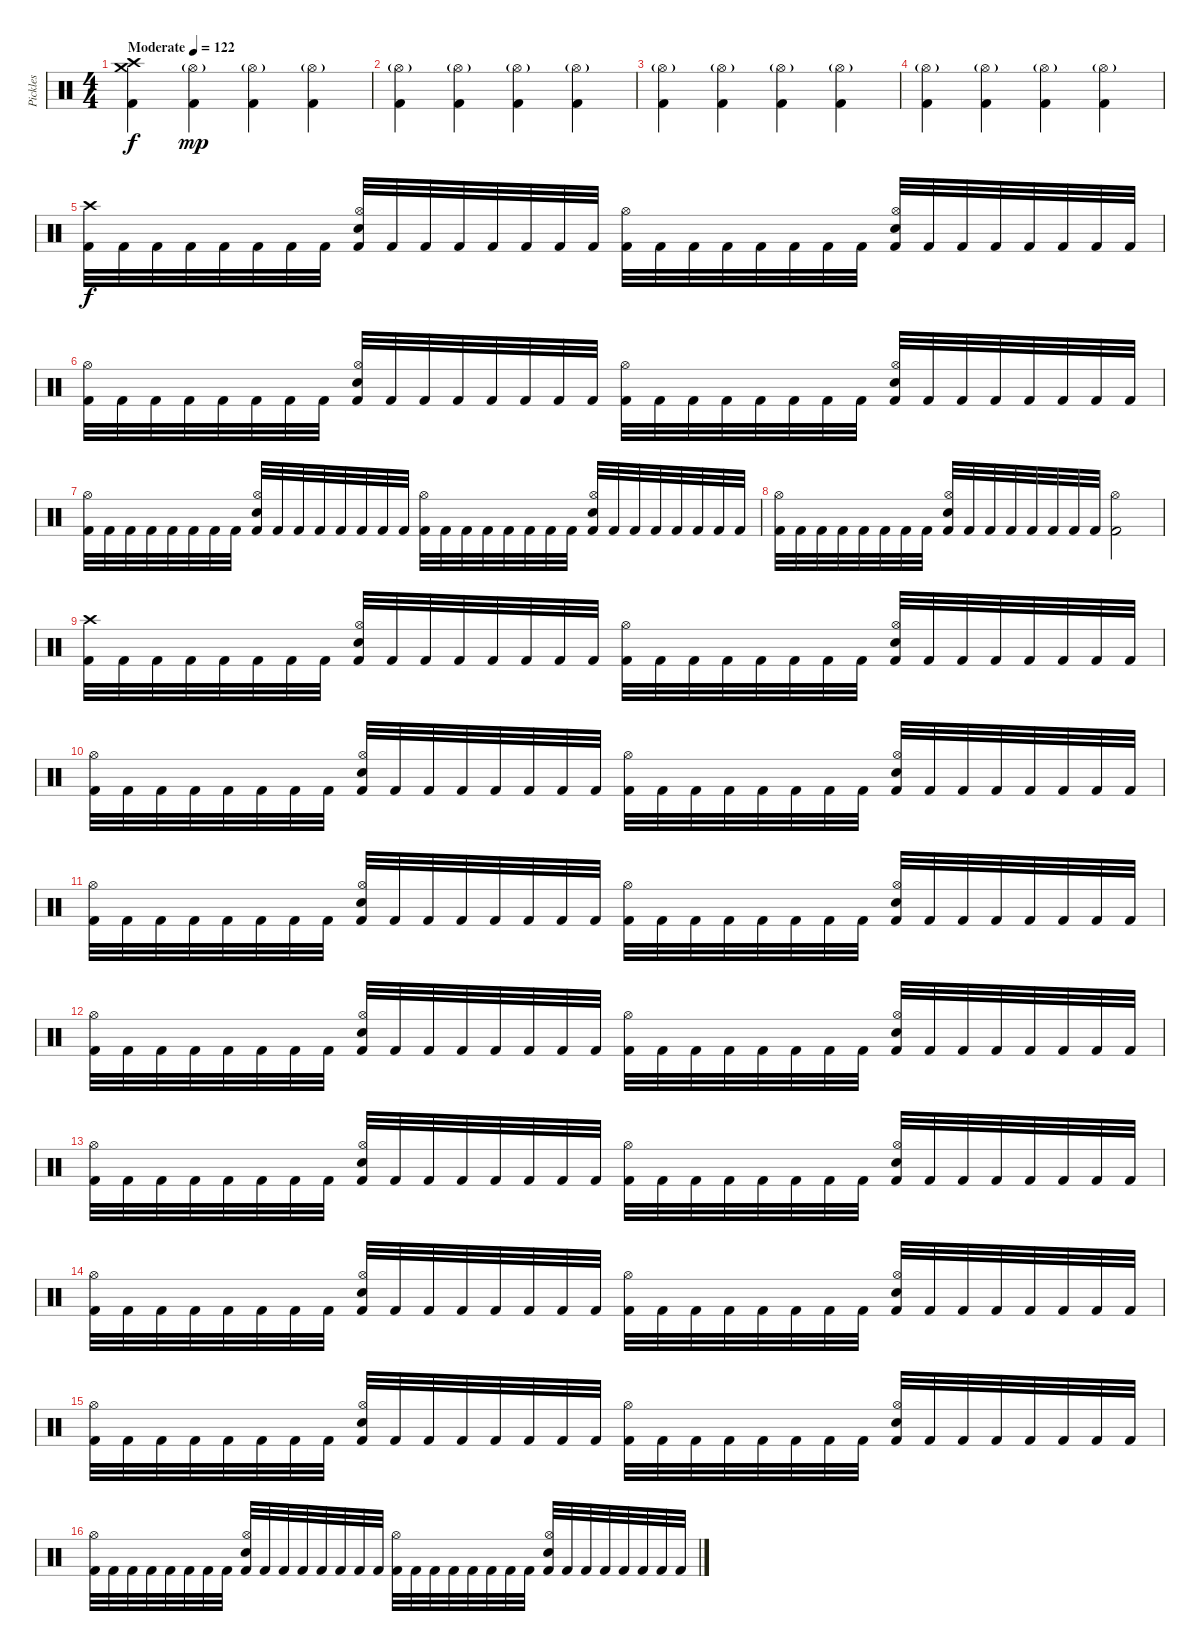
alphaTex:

\track ("Pickles" "Pickles") {instrument percussion}
\staff {score}
\articulation defaults
\ts (4 4)
\tempo (122 "Moderate")
\clef neutral
\ks c
("Crash medium (hit)" "Crash high (hit)" "Kick (hit) 2").4{dy f} ("Hi-Hat (open)"{g} "Kick (hit) 2").4{dy mp} ("Hi-Hat (open)"{g} "Kick (hit) 2").4 ("Hi-Hat (open)"{g} "Kick (hit) 2").4 |
("Hi-Hat (open)"{g} "Kick (hit) 2").4 ("Hi-Hat (open)"{g} "Kick (hit) 2").4 ("Hi-Hat (open)"{g} "Kick (hit) 2").4 ("Hi-Hat (open)"{g} "Kick (hit) 2").4 |
("Hi-Hat (open)"{g} "Kick (hit) 2").4 ("Hi-Hat (open)"{g} "Kick (hit) 2").4 ("Hi-Hat (open)"{g} "Kick (hit) 2").4 ("Hi-Hat (open)"{g} "Kick (hit) 2").4 |
("Hi-Hat (open)"{g} "Kick (hit) 2").4 ("Hi-Hat (open)"{g} "Kick (hit) 2").4 ("Hi-Hat (open)"{g} "Kick (hit) 2").4 ("Hi-Hat (open)"{g} "Kick (hit) 2").4 |
("Crash high (hit)" "Kick (hit) 2").32{dy f} "Kick (hit) 2".32 "Kick (hit) 2".32 "Kick (hit) 2".32 "Kick (hit) 2".32 "Kick (hit) 2".32 "Kick (hit) 2".32 "Kick (hit) 2".32 ("Hi-Hat (open)" "Electric Snare (hit)" "Kick (hit) 2").32 "Kick (hit) 2".32 "Kick (hit) 2".32 "Kick (hit) 2".32 "Kick (hit) 2".32 "Kick (hit) 2".32 "Kick (hit) 2".32 "Kick (hit) 2".32 ("Hi-Hat (open)" "Kick (hit) 2").32 "Kick (hit) 2".32 "Kick (hit) 2".32 "Kick (hit) 2".32 "Kick (hit) 2".32 "Kick (hit) 2".32 "Kick (hit) 2".32 "Kick (hit) 2".32 ("Hi-Hat (open)" "Electric Snare (hit)" "Kick (hit) 2").32 "Kick (hit) 2".32 "Kick (hit) 2".32 "Kick (hit) 2".32 "Kick (hit) 2".32 "Kick (hit) 2".32 "Kick (hit) 2".32 "Kick (hit) 2".32 |
("Hi-Hat (open)" "Kick (hit) 2").32 "Kick (hit) 2".32 "Kick (hit) 2".32 "Kick (hit) 2".32 "Kick (hit) 2".32 "Kick (hit) 2".32 "Kick (hit) 2".32 "Kick (hit) 2".32 ("Hi-Hat (open)" "Electric Snare (hit)" "Kick (hit) 2").32 "Kick (hit) 2".32 "Kick (hit) 2".32 "Kick (hit) 2".32 "Kick (hit) 2".32 "Kick (hit) 2".32 "Kick (hit) 2".32 "Kick (hit) 2".32 ("Hi-Hat (open)" "Kick (hit) 2").32 "Kick (hit) 2".32 "Kick (hit) 2".32 "Kick (hit) 2".32 "Kick (hit) 2".32 "Kick (hit) 2".32 "Kick (hit) 2".32 "Kick (hit) 2".32 ("Hi-Hat (open)" "Electric Snare (hit)" "Kick (hit) 2").32 "Kick (hit) 2".32 "Kick (hit) 2".32 "Kick (hit) 2".32 "Kick (hit) 2".32 "Kick (hit) 2".32 "Kick (hit) 2".32 "Kick (hit) 2".32 |
("Hi-Hat (open)" "Kick (hit) 2").32 "Kick (hit) 2".32 "Kick (hit) 2".32 "Kick (hit) 2".32 "Kick (hit) 2".32 "Kick (hit) 2".32 "Kick (hit) 2".32 "Kick (hit) 2".32 ("Hi-Hat (open)" "Electric Snare (hit)" "Kick (hit) 2").32 "Kick (hit) 2".32 "Kick (hit) 2".32 "Kick (hit) 2".32 "Kick (hit) 2".32 "Kick (hit) 2".32 "Kick (hit) 2".32 "Kick (hit) 2".32 ("Hi-Hat (open)" "Kick (hit) 2").32 "Kick (hit) 2".32 "Kick (hit) 2".32 "Kick (hit) 2".32 "Kick (hit) 2".32 "Kick (hit) 2".32 "Kick (hit) 2".32 "Kick (hit) 2".32 ("Hi-Hat (open)" "Electric Snare (hit)" "Kick (hit) 2").32 "Kick (hit) 2".32 "Kick (hit) 2".32 "Kick (hit) 2".32 "Kick (hit) 2".32 "Kick (hit) 2".32 "Kick (hit) 2".32 "Kick (hit) 2".32 |
("Hi-Hat (open)" "Kick (hit) 2").32 "Kick (hit) 2".32 "Kick (hit) 2".32 "Kick (hit) 2".32 "Kick (hit) 2".32 "Kick (hit) 2".32 "Kick (hit) 2".32 "Kick (hit) 2".32 ("Hi-Hat (open)" "Electric Snare (hit)" "Kick (hit) 2").32 "Kick (hit) 2".32 "Kick (hit) 2".32 "Kick (hit) 2".32 "Kick (hit) 2".32 "Kick (hit) 2".32 "Kick (hit) 2".32 "Kick (hit) 2".32 ("Hi-Hat (open)" "Kick (hit) 2").2 |
("Crash high (hit)" "Kick (hit) 2").32 "Kick (hit) 2".32 "Kick (hit) 2".32 "Kick (hit) 2".32 "Kick (hit) 2".32 "Kick (hit) 2".32 "Kick (hit) 2".32 "Kick (hit) 2".32 ("Hi-Hat (open)" "Electric Snare (hit)" "Kick (hit) 2").32 "Kick (hit) 2".32 "Kick (hit) 2".32 "Kick (hit) 2".32 "Kick (hit) 2".32 "Kick (hit) 2".32 "Kick (hit) 2".32 "Kick (hit) 2".32 ("Hi-Hat (open)" "Kick (hit) 2").32 "Kick (hit) 2".32 "Kick (hit) 2".32 "Kick (hit) 2".32 "Kick (hit) 2".32 "Kick (hit) 2".32 "Kick (hit) 2".32 "Kick (hit) 2".32 ("Hi-Hat (open)" "Electric Snare (hit)" "Kick (hit) 2").32 "Kick (hit) 2".32 "Kick (hit) 2".32 "Kick (hit) 2".32 "Kick (hit) 2".32 "Kick (hit) 2".32 "Kick (hit) 2".32 "Kick (hit) 2".32 |
("Hi-Hat (open)" "Kick (hit) 2").32 "Kick (hit) 2".32 "Kick (hit) 2".32 "Kick (hit) 2".32 "Kick (hit) 2".32 "Kick (hit) 2".32 "Kick (hit) 2".32 "Kick (hit) 2".32 ("Hi-Hat (open)" "Electric Snare (hit)" "Kick (hit) 2").32 "Kick (hit) 2".32 "Kick (hit) 2".32 "Kick (hit) 2".32 "Kick (hit) 2".32 "Kick (hit) 2".32 "Kick (hit) 2".32 "Kick (hit) 2".32 ("Hi-Hat (open)" "Kick (hit) 2").32 "Kick (hit) 2".32 "Kick (hit) 2".32 "Kick (hit) 2".32 "Kick (hit) 2".32 "Kick (hit) 2".32 "Kick (hit) 2".32 "Kick (hit) 2".32 ("Hi-Hat (open)" "Electric Snare (hit)" "Kick (hit) 2").32 "Kick (hit) 2".32 "Kick (hit) 2".32 "Kick (hit) 2".32 "Kick (hit) 2".32 "Kick (hit) 2".32 "Kick (hit) 2".32 "Kick (hit) 2".32 |
("Hi-Hat (open)" "Kick (hit) 2").32 "Kick (hit) 2".32 "Kick (hit) 2".32 "Kick (hit) 2".32 "Kick (hit) 2".32 "Kick (hit) 2".32 "Kick (hit) 2".32 "Kick (hit) 2".32 ("Hi-Hat (open)" "Electric Snare (hit)" "Kick (hit) 2").32 "Kick (hit) 2".32 "Kick (hit) 2".32 "Kick (hit) 2".32 "Kick (hit) 2".32 "Kick (hit) 2".32 "Kick (hit) 2".32 "Kick (hit) 2".32 ("Hi-Hat (open)" "Kick (hit) 2").32 "Kick (hit) 2".32 "Kick (hit) 2".32 "Kick (hit) 2".32 "Kick (hit) 2".32 "Kick (hit) 2".32 "Kick (hit) 2".32 "Kick (hit) 2".32 ("Hi-Hat (open)" "Electric Snare (hit)" "Kick (hit) 2").32 "Kick (hit) 2".32 "Kick (hit) 2".32 "Kick (hit) 2".32 "Kick (hit) 2".32 "Kick (hit) 2".32 "Kick (hit) 2".32 "Kick (hit) 2".32 |
("Hi-Hat (open)" "Kick (hit) 2").32 "Kick (hit) 2".32 "Kick (hit) 2".32 "Kick (hit) 2".32 "Kick (hit) 2".32 "Kick (hit) 2".32 "Kick (hit) 2".32 "Kick (hit) 2".32 ("Hi-Hat (open)" "Electric Snare (hit)" "Kick (hit) 2").32 "Kick (hit) 2".32 "Kick (hit) 2".32 "Kick (hit) 2".32 "Kick (hit) 2".32 "Kick (hit) 2".32 "Kick (hit) 2".32 "Kick (hit) 2".32 ("Hi-Hat (open)" "Kick (hit) 2").32 "Kick (hit) 2".32 "Kick (hit) 2".32 "Kick (hit) 2".32 "Kick (hit) 2".32 "Kick (hit) 2".32 "Kick (hit) 2".32 "Kick (hit) 2".32 ("Hi-Hat (open)" "Electric Snare (hit)" "Kick (hit) 2").32 "Kick (hit) 2".32 "Kick (hit) 2".32 "Kick (hit) 2".32 "Kick (hit) 2".32 "Kick (hit) 2".32 "Kick (hit) 2".32 "Kick (hit) 2".32 |
("Hi-Hat (open)" "Kick (hit) 2").32 "Kick (hit) 2".32 "Kick (hit) 2".32 "Kick (hit) 2".32 "Kick (hit) 2".32 "Kick (hit) 2".32 "Kick (hit) 2".32 "Kick (hit) 2".32 ("Hi-Hat (open)" "Electric Snare (hit)" "Kick (hit) 2").32 "Kick (hit) 2".32 "Kick (hit) 2".32 "Kick (hit) 2".32 "Kick (hit) 2".32 "Kick (hit) 2".32 "Kick (hit) 2".32 "Kick (hit) 2".32 ("Hi-Hat (open)" "Kick (hit) 2").32 "Kick (hit) 2".32 "Kick (hit) 2".32 "Kick (hit) 2".32 "Kick (hit) 2".32 "Kick (hit) 2".32 "Kick (hit) 2".32 "Kick (hit) 2".32 ("Hi-Hat (open)" "Electric Snare (hit)" "Kick (hit) 2").32 "Kick (hit) 2".32 "Kick (hit) 2".32 "Kick (hit) 2".32 "Kick (hit) 2".32 "Kick (hit) 2".32 "Kick (hit) 2".32 "Kick (hit) 2".32 |
("Hi-Hat (open)" "Kick (hit) 2").32 "Kick (hit) 2".32 "Kick (hit) 2".32 "Kick (hit) 2".32 "Kick (hit) 2".32 "Kick (hit) 2".32 "Kick (hit) 2".32 "Kick (hit) 2".32 ("Hi-Hat (open)" "Electric Snare (hit)" "Kick (hit) 2").32 "Kick (hit) 2".32 "Kick (hit) 2".32 "Kick (hit) 2".32 "Kick (hit) 2".32 "Kick (hit) 2".32 "Kick (hit) 2".32 "Kick (hit) 2".32 ("Hi-Hat (open)" "Kick (hit) 2").32 "Kick (hit) 2".32 "Kick (hit) 2".32 "Kick (hit) 2".32 "Kick (hit) 2".32 "Kick (hit) 2".32 "Kick (hit) 2".32 "Kick (hit) 2".32 ("Hi-Hat (open)" "Electric Snare (hit)" "Kick (hit) 2").32 "Kick (hit) 2".32 "Kick (hit) 2".32 "Kick (hit) 2".32 "Kick (hit) 2".32 "Kick (hit) 2".32 "Kick (hit) 2".32 "Kick (hit) 2".32 |
("Hi-Hat (open)" "Kick (hit) 2").32 "Kick (hit) 2".32 "Kick (hit) 2".32 "Kick (hit) 2".32 "Kick (hit) 2".32 "Kick (hit) 2".32 "Kick (hit) 2".32 "Kick (hit) 2".32 ("Hi-Hat (open)" "Electric Snare (hit)" "Kick (hit) 2").32 "Kick (hit) 2".32 "Kick (hit) 2".32 "Kick (hit) 2".32 "Kick (hit) 2".32 "Kick (hit) 2".32 "Kick (hit) 2".32 "Kick (hit) 2".32 ("Hi-Hat (open)" "Kick (hit) 2").32 "Kick (hit) 2".32 "Kick (hit) 2".32 "Kick (hit) 2".32 "Kick (hit) 2".32 "Kick (hit) 2".32 "Kick (hit) 2".32 "Kick (hit) 2".32 ("Hi-Hat (open)" "Electric Snare (hit)" "Kick (hit) 2").32 "Kick (hit) 2".32 "Kick (hit) 2".32 "Kick (hit) 2".32 "Kick (hit) 2".32 "Kick (hit) 2".32 "Kick (hit) 2".32 "Kick (hit) 2".32 |
("Hi-Hat (open)" "Kick (hit) 2").32 "Kick (hit) 2".32 "Kick (hit) 2".32 "Kick (hit) 2".32 "Kick (hit) 2".32 "Kick (hit) 2".32 "Kick (hit) 2".32 "Kick (hit) 2".32 ("Hi-Hat (open)" "Electric Snare (hit)" "Kick (hit) 2").32 "Kick (hit) 2".32 "Kick (hit) 2".32 "Kick (hit) 2".32 "Kick (hit) 2".32 "Kick (hit) 2".32 "Kick (hit) 2".32 "Kick (hit) 2".32 ("Hi-Hat (open)" "Kick (hit) 2").32 "Kick (hit) 2".32 "Kick (hit) 2".32 "Kick (hit) 2".32 "Kick (hit) 2".32 "Kick (hit) 2".32 "Kick (hit) 2".32 "Kick (hit) 2".32 ("Hi-Hat (open)" "Electric Snare (hit)" "Kick (hit) 2").32 "Kick (hit) 2".32 "Kick (hit) 2".32 "Kick (hit) 2".32 "Kick (hit) 2".32 "Kick (hit) 2".32 "Kick (hit) 2".32 "Kick (hit) 2".32
